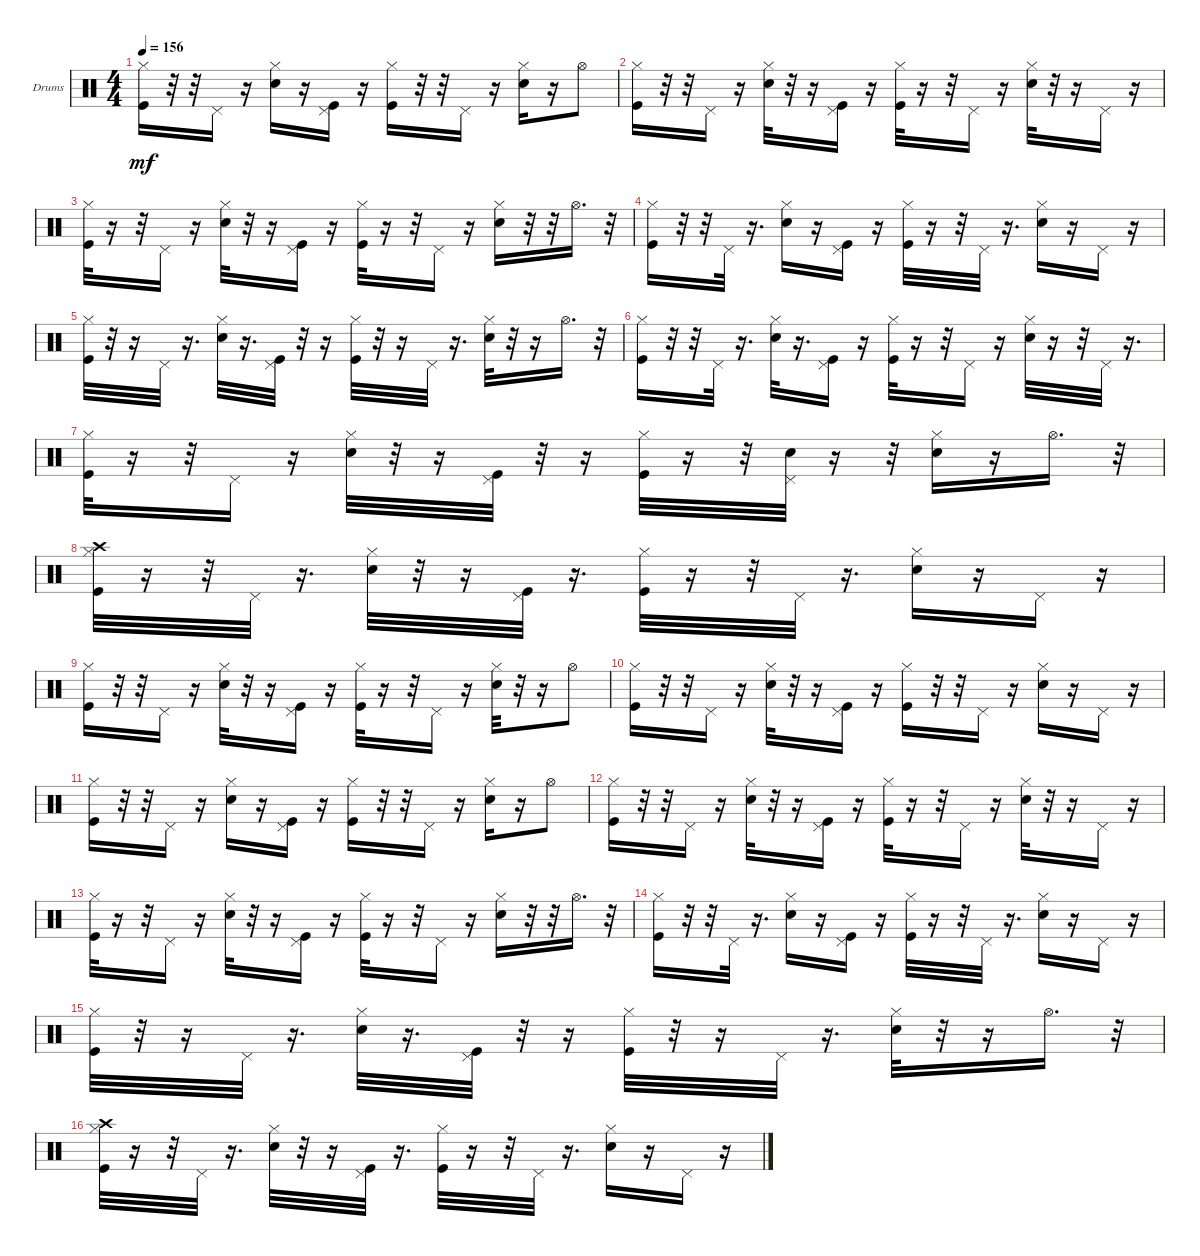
\defaultSystemsLayout 4
\bracketExtendMode groupsimilarinstruments
\firstSystemTrackNameOrientation horizontal
\otherSystemsTrackNameOrientation horizontal
\track ("Drumkit" "Drums") {instrument percussion}
\staff {score}
\articulation defaults
\ts (4 4)
\tempo 156
\clef neutral
\ks c
("Kick (hit)" "Hi-Hat (closed)").16{dy mf} r.32 r.32 "Pedal Hi-Hat (hit)".16 r.16 ("Snare (hit) 2" "Hi-Hat (closed)").16 r.16 ("Kick (hit)" "Pedal Hi-Hat (hit)").16 r.16 ("Kick (hit)" "Hi-Hat (closed)").16 r.32 r.32 "Pedal Hi-Hat (hit)".16 r.16 ("Snare (hit) 2" "Hi-Hat (closed)").16 r.16 "Hi-Hat (open)".8 |
("Kick (hit)" "Hi-Hat (closed)").16 r.32 r.32 "Pedal Hi-Hat (hit)".16 r.16 ("Snare (hit) 2" "Hi-Hat (closed)").32 r.32 r.16 ("Kick (hit)" "Pedal Hi-Hat (hit)").16 r.16 ("Kick (hit)" "Hi-Hat (closed)").32 r.16 r.32 "Pedal Hi-Hat (hit)".16 r.16 ("Snare (hit) 2" "Hi-Hat (closed)").32 r.32 r.16 "Pedal Hi-Hat (hit)".16 r.16 |
("Kick (hit)" "Hi-Hat (closed)").32 r.16 r.32 "Pedal Hi-Hat (hit)".16 r.16 ("Snare (hit) 2" "Hi-Hat (closed)").32 r.32 r.16 ("Kick (hit)" "Pedal Hi-Hat (hit)").16 r.16 ("Kick (hit)" "Hi-Hat (closed)").32 r.16 r.32 "Pedal Hi-Hat (hit)".16 r.16 ("Snare (hit) 2" "Hi-Hat (closed)").16 r.32 r.32 "Hi-Hat (open)".16{d} r.32 |
("Kick (hit)" "Hi-Hat (closed)").16 r.32 r.32 "Pedal Hi-Hat (hit)".32 r.16{d} ("Snare (hit) 2" "Hi-Hat (closed)").16 r.16 ("Kick (hit)" "Pedal Hi-Hat (hit)").16 r.16 ("Kick (hit)" "Hi-Hat (closed)").32 r.16 r.32 "Pedal Hi-Hat (hit)".32 r.16{d} ("Snare (hit) 2" "Hi-Hat (closed)").16 r.16 "Pedal Hi-Hat (hit)".16 r.16 |
("Kick (hit)" "Hi-Hat (closed)").32 r.32 r.16 "Pedal Hi-Hat (hit)".32 r.16{d} ("Snare (hit) 2" "Hi-Hat (closed)").32 r.16{d} ("Kick (hit)" "Pedal Hi-Hat (hit)").32 r.32 r.16 ("Kick (hit)" "Hi-Hat (closed)").32 r.32 r.16 "Pedal Hi-Hat (hit)".32 r.16{d} ("Snare (hit) 2" "Hi-Hat (closed)").32 r.32 r.16 "Hi-Hat (open)".16{d} r.32 |
("Kick (hit)" "Hi-Hat (closed)").16 r.32 r.32 "Pedal Hi-Hat (hit)".32 r.16{d} ("Snare (hit) 2" "Hi-Hat (closed)").32 r.16{d} ("Kick (hit)" "Pedal Hi-Hat (hit)").16 r.16 ("Kick (hit)" "Hi-Hat (closed)").32 r.16 r.32 "Pedal Hi-Hat (hit)".16 r.16 ("Snare (hit) 2" "Hi-Hat (closed)").32 r.16 r.32 "Pedal Hi-Hat (hit)".32 r.16{d} |
("Kick (hit)" "Hi-Hat (closed)").32 r.16 r.32 "Pedal Hi-Hat (hit)".16 r.16 ("Snare (hit) 2" "Hi-Hat (closed)").32 r.32 r.16 ("Kick (hit)" "Pedal Hi-Hat (hit)").32 r.32 r.16 ("Kick (hit)" "Hi-Hat (closed)").32 r.16 r.32 ("Pedal Hi-Hat (hit)" "Snare (hit) 2").32 r.16 r.32 ("Snare (hit) 2" "Hi-Hat (closed)").16 r.16 "Hi-Hat (open)".16{d} r.32 |
("Kick (hit)" "Crash high (hit)" "Hi-Hat (closed)").32 r.16 r.32 "Pedal Hi-Hat (hit)".32 r.16{d} ("Snare (hit) 2" "Hi-Hat (closed)").32 r.32 r.16 ("Kick (hit)" "Pedal Hi-Hat (hit)").32 r.16{d} ("Kick (hit)" "Hi-Hat (closed)").32 r.16 r.32 "Pedal Hi-Hat (hit)".32 r.16{d} ("Snare (hit) 2" "Hi-Hat (closed)").16 r.16 "Pedal Hi-Hat (hit)".16 r.16 |
("Kick (hit)" "Hi-Hat (closed)").16 r.32 r.32 "Pedal Hi-Hat (hit)".16 r.16 ("Snare (hit) 2" "Hi-Hat (closed)").32 r.32 r.16 ("Kick (hit)" "Pedal Hi-Hat (hit)").16 r.16 ("Kick (hit)" "Hi-Hat (closed)").32 r.16 r.32 "Pedal Hi-Hat (hit)".16 r.16 ("Snare (hit) 2" "Hi-Hat (closed)").32 r.32 r.16 "Hi-Hat (open)".8 |
("Kick (hit)" "Hi-Hat (closed)").16 r.32 r.32 "Pedal Hi-Hat (hit)".16 r.16 ("Snare (hit) 2" "Hi-Hat (closed)").32 r.32 r.16 ("Kick (hit)" "Pedal Hi-Hat (hit)").16 r.16 ("Kick (hit)" "Hi-Hat (closed)").16 r.32 r.32 "Pedal Hi-Hat (hit)".16 r.16 ("Snare (hit) 2" "Hi-Hat (closed)").16 r.16 "Pedal Hi-Hat (hit)".16 r.16 |
("Kick (hit)" "Hi-Hat (closed)").16 r.32 r.32 "Pedal Hi-Hat (hit)".16 r.16 ("Snare (hit) 2" "Hi-Hat (closed)").16 r.16 ("Kick (hit)" "Pedal Hi-Hat (hit)").16 r.16 ("Kick (hit)" "Hi-Hat (closed)").16 r.32 r.32 "Pedal Hi-Hat (hit)".16 r.16 ("Snare (hit) 2" "Hi-Hat (closed)").16 r.16 "Hi-Hat (open)".8 |
("Kick (hit)" "Hi-Hat (closed)").16 r.32 r.32 "Pedal Hi-Hat (hit)".16 r.16 ("Snare (hit) 2" "Hi-Hat (closed)").32 r.32 r.16 ("Kick (hit)" "Pedal Hi-Hat (hit)").16 r.16 ("Kick (hit)" "Hi-Hat (closed)").32 r.16 r.32 "Pedal Hi-Hat (hit)".16 r.16 ("Snare (hit) 2" "Hi-Hat (closed)").32 r.32 r.16 "Pedal Hi-Hat (hit)".16 r.16 |
("Kick (hit)" "Hi-Hat (closed)").32 r.16 r.32 "Pedal Hi-Hat (hit)".16 r.16 ("Snare (hit) 2" "Hi-Hat (closed)").32 r.32 r.16 ("Kick (hit)" "Pedal Hi-Hat (hit)").16 r.16 ("Kick (hit)" "Hi-Hat (closed)").32 r.16 r.32 "Pedal Hi-Hat (hit)".16 r.16 ("Snare (hit) 2" "Hi-Hat (closed)").16 r.32 r.32 "Hi-Hat (open)".16{d} r.32 |
("Kick (hit)" "Hi-Hat (closed)").16 r.32 r.32 "Pedal Hi-Hat (hit)".32 r.16{d} ("Snare (hit) 2" "Hi-Hat (closed)").16 r.16 ("Kick (hit)" "Pedal Hi-Hat (hit)").16 r.16 ("Kick (hit)" "Hi-Hat (closed)").32 r.16 r.32 "Pedal Hi-Hat (hit)".32 r.16{d} ("Snare (hit) 2" "Hi-Hat (closed)").16 r.16 "Pedal Hi-Hat (hit)".16 r.16 |
("Kick (hit)" "Hi-Hat (closed)").32 r.32 r.16 "Pedal Hi-Hat (hit)".32 r.16{d} ("Snare (hit) 2" "Hi-Hat (closed)").32 r.16{d} ("Kick (hit)" "Pedal Hi-Hat (hit)").32 r.32 r.16 ("Kick (hit)" "Hi-Hat (closed)").32 r.32 r.16 "Pedal Hi-Hat (hit)".32 r.16{d} ("Snare (hit) 2" "Hi-Hat (closed)").32 r.32 r.16 "Hi-Hat (open)".16{d} r.32 |
("Kick (hit)" "Crash high (hit)" "Hi-Hat (closed)").32 r.16 r.32 "Pedal Hi-Hat (hit)".32 r.16{d} ("Snare (hit) 2" "Hi-Hat (closed)").32 r.32 r.16 ("Kick (hit)" "Pedal Hi-Hat (hit)").32 r.16{d} ("Kick (hit)" "Hi-Hat (closed)").32 r.16 r.32 "Pedal Hi-Hat (hit)".32 r.16{d} ("Snare (hit) 2" "Hi-Hat (closed)").16 r.16 "Pedal Hi-Hat (hit)".16 r.16
